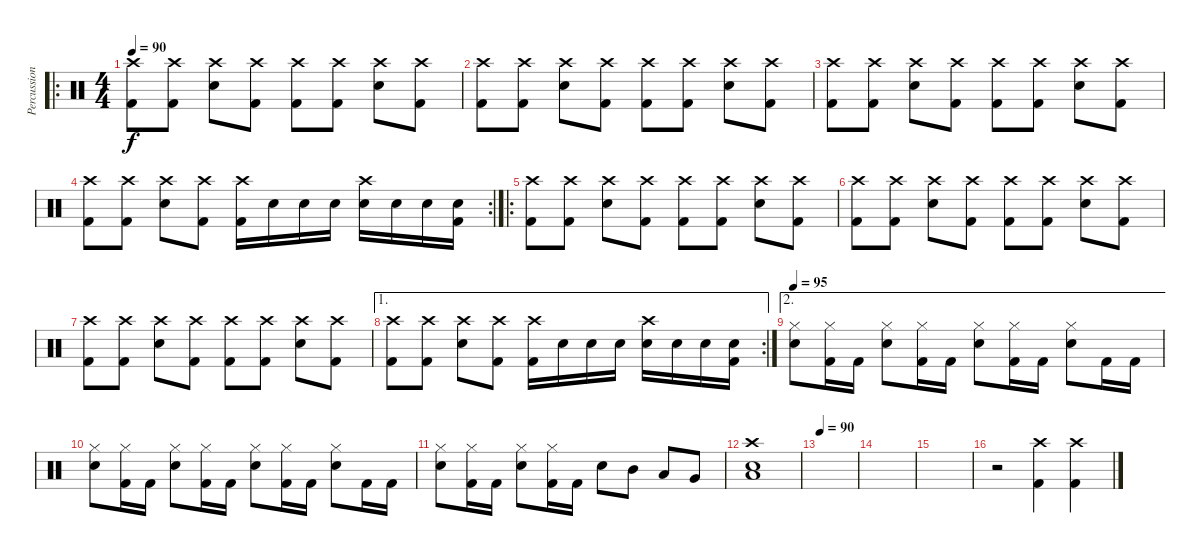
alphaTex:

\track ("Percussions" "Percussion") {instrument percussion}
\staff {score}
\articulation defaults
\ro
\ts (4 4)
\tempo 90
\clef neutral
\ks c
("Kick (hit) 2" "Crash high (hit)").8{dy f} ("Kick (hit) 2" "Crash high (hit)").8 ("Snare (hit) 2" "Crash high (hit)").8 ("Kick (hit) 2" "Crash high (hit)").8 ("Kick (hit) 2" "Crash high (hit)").8 ("Kick (hit) 2" "Crash high (hit)").8 ("Snare (hit) 2" "Crash high (hit)").8 ("Kick (hit) 2" "Crash high (hit)").8 |
("Kick (hit) 2" "Crash high (hit)").8 ("Kick (hit) 2" "Crash high (hit)").8 ("Snare (hit) 2" "Crash high (hit)").8 ("Kick (hit) 2" "Crash high (hit)").8 ("Kick (hit) 2" "Crash high (hit)").8 ("Kick (hit) 2" "Crash high (hit)").8 ("Snare (hit) 2" "Crash high (hit)").8 ("Kick (hit) 2" "Crash high (hit)").8 |
("Kick (hit) 2" "Crash high (hit)").8 ("Kick (hit) 2" "Crash high (hit)").8 ("Snare (hit) 2" "Crash high (hit)").8 ("Kick (hit) 2" "Crash high (hit)").8 ("Kick (hit) 2" "Crash high (hit)").8 ("Kick (hit) 2" "Crash high (hit)").8 ("Snare (hit) 2" "Crash high (hit)").8 ("Kick (hit) 2" "Crash high (hit)").8 |
\rc 2
("Kick (hit) 2" "Crash high (hit)").8 ("Kick (hit) 2" "Crash high (hit)").8 ("Snare (hit) 2" "Crash high (hit)").8 ("Kick (hit) 2" "Crash high (hit)").8 ("Kick (hit) 2" "Crash high (hit)").16 "Snare (hit) 2".16 "Snare (hit) 2".16 "Snare (hit) 2".16 ("Snare (hit) 2" "Crash high (hit)").16 "Snare (hit) 2".16 "Snare (hit) 2".16 ("Kick (hit) 2" "Snare (hit) 2").16 |
\ro
("Kick (hit) 2" "Crash high (hit)").8 ("Kick (hit) 2" "Crash high (hit)").8 ("Snare (hit) 2" "Crash high (hit)").8 ("Kick (hit) 2" "Crash high (hit)").8 ("Kick (hit) 2" "Crash high (hit)").8 ("Kick (hit) 2" "Crash high (hit)").8 ("Snare (hit) 2" "Crash high (hit)").8 ("Kick (hit) 2" "Crash high (hit)").8 |
("Kick (hit) 2" "Crash high (hit)").8 ("Kick (hit) 2" "Crash high (hit)").8 ("Snare (hit) 2" "Crash high (hit)").8 ("Kick (hit) 2" "Crash high (hit)").8 ("Kick (hit) 2" "Crash high (hit)").8 ("Kick (hit) 2" "Crash high (hit)").8 ("Snare (hit) 2" "Crash high (hit)").8 ("Kick (hit) 2" "Crash high (hit)").8 |
("Kick (hit) 2" "Crash high (hit)").8 ("Kick (hit) 2" "Crash high (hit)").8 ("Snare (hit) 2" "Crash high (hit)").8 ("Kick (hit) 2" "Crash high (hit)").8 ("Kick (hit) 2" "Crash high (hit)").8 ("Kick (hit) 2" "Crash high (hit)").8 ("Snare (hit) 2" "Crash high (hit)").8 ("Kick (hit) 2" "Crash high (hit)").8 |
\ae 1
\rc 2
("Kick (hit) 2" "Crash high (hit)").8 ("Kick (hit) 2" "Crash high (hit)").8 ("Snare (hit) 2" "Crash high (hit)").8 ("Kick (hit) 2" "Crash high (hit)").8 ("Kick (hit) 2" "Crash high (hit)").16 "Snare (hit) 2".16 "Snare (hit) 2".16 "Snare (hit) 2".16 ("Snare (hit) 2" "Crash high (hit)").16 "Snare (hit) 2".16 "Snare (hit) 2".16 ("Kick (hit) 2" "Snare (hit) 2").16 |
\ae 2
\tempo 95
("Snare (hit) 2" "Hi-Hat (closed)").8 ("Kick (hit) 2" "Hi-Hat (closed)").16 "Kick (hit) 2".16 ("Snare (hit) 2" "Hi-Hat (closed)").8 ("Kick (hit) 2" "Hi-Hat (closed)").16 "Kick (hit) 2".16 ("Snare (hit) 2" "Hi-Hat (closed)").8 ("Kick (hit) 2" "Hi-Hat (closed)").16 "Kick (hit) 2".16 ("Snare (hit) 2" "Hi-Hat (closed)").8 "Kick (hit) 2".16 "Kick (hit) 2".16 |
("Snare (hit) 2" "Hi-Hat (closed)").8 ("Kick (hit) 2" "Hi-Hat (closed)").16 "Kick (hit) 2".16 ("Snare (hit) 2" "Hi-Hat (closed)").8 ("Kick (hit) 2" "Hi-Hat (closed)").16 "Kick (hit) 2".16 ("Snare (hit) 2" "Hi-Hat (closed)").8 ("Kick (hit) 2" "Hi-Hat (closed)").16 "Kick (hit) 2".16 ("Snare (hit) 2" "Hi-Hat (closed)").8 "Kick (hit) 2".16 "Kick (hit) 2".16 |
("Snare (hit) 2" "Hi-Hat (closed)").8 ("Kick (hit) 2" "Hi-Hat (closed)").16 "Kick (hit) 2".16 ("Snare (hit) 2" "Hi-Hat (closed)").8 ("Kick (hit) 2" "Hi-Hat (closed)").16 "Kick (hit) 2".16 "Snare (hit) 2".8 "Mid Tom (hit)".8 "Low Tom (hit)".8 "Very Low Tom (hit)".8 |
("Low Floor Tom (hit)" "Snare (hit) 2" "Crash high (hit)").1 |
\tempo 90
|
|
|
r.2 ("Kick (hit) 2" "Crash high (hit)").4 ("Kick (hit) 2" "Crash high (hit)").4
